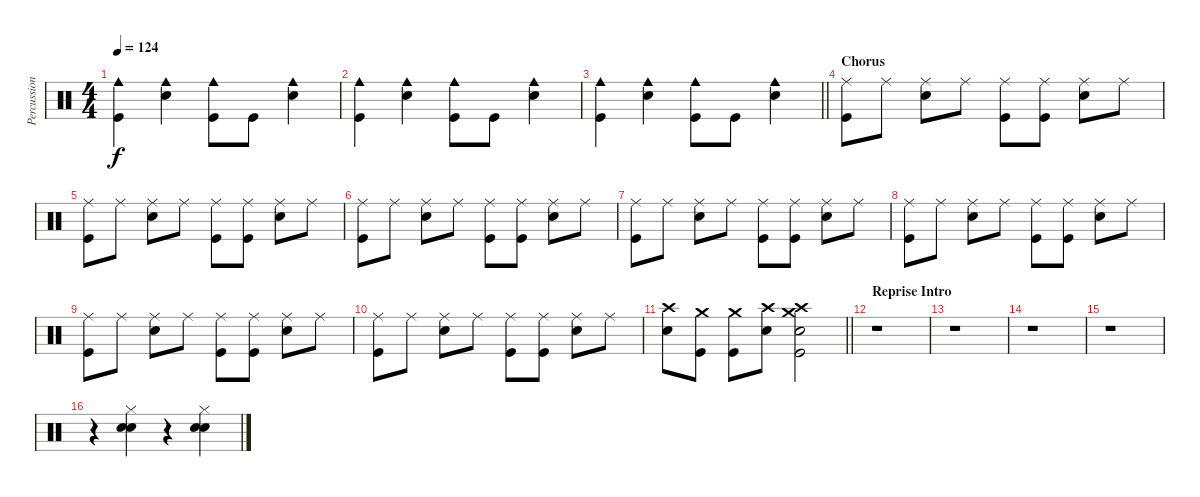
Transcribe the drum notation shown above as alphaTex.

\track ("Percussion" "Percussion") {instrument percussion}
\staff {score}
\articulation defaults
\ts (4 4)
\tempo 124
\clef neutral
\ks c
("Cowbell medium (hit)" "Kick (hit)").4{dy f} ("Cowbell medium (hit)" "Electric Snare (hit)").4 ("Cowbell medium (hit)" "Kick (hit)").8 "Kick (hit)".8 ("Cowbell medium (hit)" "Electric Snare (hit)").4 |
("Cowbell medium (hit)" "Kick (hit)").4 ("Cowbell medium (hit)" "Electric Snare (hit)").4 ("Cowbell medium (hit)" "Kick (hit)").8 "Kick (hit)".8 ("Cowbell medium (hit)" "Electric Snare (hit)").4 |
\barLineRight lightlight
("Cowbell medium (hit)" "Kick (hit)").4 ("Cowbell medium (hit)" "Electric Snare (hit)").4 ("Cowbell medium (hit)" "Kick (hit)").8 "Kick (hit)".8 ("Cowbell medium (hit)" "Electric Snare (hit)").4 |
\section ("" "Chorus")
("Ride (middle)" "Kick (hit)").8 "Ride (middle)".8 ("Ride (middle)" "Electric Snare (hit)").8 "Ride (middle)".8 ("Ride (middle)" "Kick (hit)").8 ("Ride (middle)" "Kick (hit)").8 ("Ride (middle)" "Electric Snare (hit)").8 "Ride (middle)".8 |
("Ride (middle)" "Kick (hit)").8 "Ride (middle)".8 ("Ride (middle)" "Electric Snare (hit)").8 "Ride (middle)".8 ("Ride (middle)" "Kick (hit)").8 ("Ride (middle)" "Kick (hit)").8 ("Ride (middle)" "Electric Snare (hit)").8 "Ride (middle)".8 |
("Ride (middle)" "Kick (hit)").8 "Ride (middle)".8 ("Ride (middle)" "Electric Snare (hit)").8 "Ride (middle)".8 ("Ride (middle)" "Kick (hit)").8 ("Ride (middle)" "Kick (hit)").8 ("Ride (middle)" "Electric Snare (hit)").8 "Ride (middle)".8 |
("Ride (middle)" "Kick (hit)").8 "Ride (middle)".8 ("Ride (middle)" "Electric Snare (hit)").8 "Ride (middle)".8 ("Ride (middle)" "Kick (hit)").8 ("Ride (middle)" "Kick (hit)").8 ("Ride (middle)" "Electric Snare (hit)").8 "Ride (middle)".8 |
("Ride (middle)" "Kick (hit)").8 "Ride (middle)".8 ("Ride (middle)" "Electric Snare (hit)").8 "Ride (middle)".8 ("Ride (middle)" "Kick (hit)").8 ("Ride (middle)" "Kick (hit)").8 ("Ride (middle)" "Electric Snare (hit)").8 "Ride (middle)".8 |
("Ride (middle)" "Kick (hit)").8 "Ride (middle)".8 ("Ride (middle)" "Electric Snare (hit)").8 "Ride (middle)".8 ("Ride (middle)" "Kick (hit)").8 ("Ride (middle)" "Kick (hit)").8 ("Ride (middle)" "Electric Snare (hit)").8 "Ride (middle)".8 |
("Ride (middle)" "Kick (hit)").8 "Ride (middle)".8 ("Ride (middle)" "Electric Snare (hit)").8 "Ride (middle)".8 ("Ride (middle)" "Kick (hit)").8 ("Ride (middle)" "Kick (hit)").8 ("Ride (middle)" "Electric Snare (hit)").8 "Ride (middle)".8 |
\barLineRight lightlight
("Crash high (hit)" "Electric Snare (hit)").8 ("Crash medium (hit)" "Kick (hit)").8 ("Crash medium (hit)" "Kick (hit)").8 ("Crash high (hit)" "Electric Snare (hit)").8 ("Crash medium (hit)" "Crash high (hit)" "Kick (hit)" "Electric Snare (hit)").2 |
\section ("" "Reprise Intro")
r.1 |
r.1 |
r.1 |
r.1 |
r.4 ("Snare (hit) 2" "Electric Snare (hit)" "Hi-Hat (closed)").4 r.4 ("Snare (hit) 2" "Electric Snare (hit)" "Hi-Hat (closed)").4
